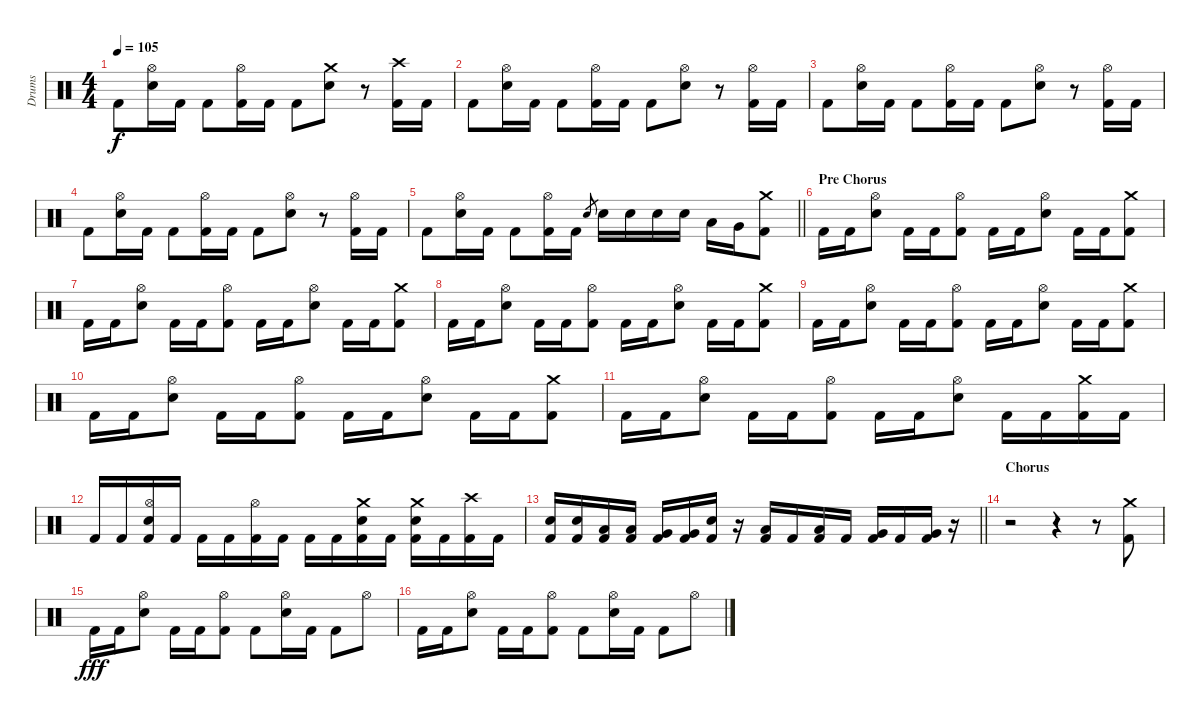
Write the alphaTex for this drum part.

\track ("Drums" "Drums") {instrument percussion}
\staff {score}
\articulation defaults
\ts (4 4)
\tempo 105
\clef neutral
\ks c "Kick (hit) 2".8{dy f}
("Hi-Hat (open)" "Snare (hit) 2").16 "Kick (hit) 2".16 "Kick (hit) 2".8 ("Hi-Hat (open)" "Kick (hit) 2").16 "Kick (hit) 2".16 "Kick (hit) 2".8 ("Crash medium (hit)" "Snare (hit) 2").8 r.8 ("Crash high (hit)" "Kick (hit) 2").16 "Kick (hit) 2".16 |
"Kick (hit) 2".8 ("Hi-Hat (open)" "Snare (hit) 2").16 "Kick (hit) 2".16 "Kick (hit) 2".8 ("Hi-Hat (open)" "Kick (hit) 2").16 "Kick (hit) 2".16 "Kick (hit) 2".8 ("Hi-Hat (open)" "Snare (hit) 2").8 r.8 ("Hi-Hat (open)" "Kick (hit) 2").16 "Kick (hit) 2".16 |
"Kick (hit) 2".8 ("Hi-Hat (open)" "Snare (hit) 2").16 "Kick (hit) 2".16 "Kick (hit) 2".8 ("Hi-Hat (open)" "Kick (hit) 2").16 "Kick (hit) 2".16 "Kick (hit) 2".8 ("Hi-Hat (open)" "Snare (hit) 2").8 r.8 ("Hi-Hat (open)" "Kick (hit) 2").16 "Kick (hit) 2".16 |
"Kick (hit) 2".8 ("Hi-Hat (open)" "Snare (hit) 2").16 "Kick (hit) 2".16 "Kick (hit) 2".8 ("Hi-Hat (open)" "Kick (hit) 2").16 "Kick (hit) 2".16 "Kick (hit) 2".8 ("Hi-Hat (open)" "Snare (hit) 2").8 r.8 ("Hi-Hat (open)" "Kick (hit) 2").16 "Kick (hit) 2".16 |
\barLineRight lightlight "Kick (hit) 2".8
("Hi-Hat (open)" "Snare (hit) 2").16 "Kick (hit) 2".16 "Kick (hit) 2".8 ("Hi-Hat (open)" "Kick (hit) 2").16 "Kick (hit) 2".16 "Snare (hit) 2".8{gr} "Snare (hit) 2".16 "Snare (hit) 2".16 "Snare (hit) 2".16 "Snare (hit) 2".16 "Low Tom (hit)".16 "Very Low Tom (hit)".16 ("Crash medium (hit)" "Kick (hit) 2").8 |
\section ("" "Pre Chorus")
"Kick (hit) 2".16 "Kick (hit) 2".16 ("Hi-Hat (open)" "Snare (hit) 2").8 "Kick (hit) 2".16 "Kick (hit) 2".16 ("Hi-Hat (open)" "Kick (hit) 2").8 "Kick (hit) 2".16 "Kick (hit) 2".16 ("Hi-Hat (open)" "Snare (hit) 2").8 "Kick (hit) 2".16 "Kick (hit) 2".16 ("Crash medium (hit)" "Kick (hit) 2").8 |
"Kick (hit) 2".16 "Kick (hit) 2".16 ("Hi-Hat (open)" "Snare (hit) 2").8 "Kick (hit) 2".16 "Kick (hit) 2".16 ("Hi-Hat (open)" "Kick (hit) 2").8 "Kick (hit) 2".16 "Kick (hit) 2".16 ("Hi-Hat (open)" "Snare (hit) 2").8 "Kick (hit) 2".16 "Kick (hit) 2".16 ("Crash medium (hit)" "Kick (hit) 2").8 |
"Kick (hit) 2".16 "Kick (hit) 2".16 ("Hi-Hat (open)" "Snare (hit) 2").8 "Kick (hit) 2".16 "Kick (hit) 2".16 ("Hi-Hat (open)" "Kick (hit) 2").8 "Kick (hit) 2".16 "Kick (hit) 2".16 ("Hi-Hat (open)" "Snare (hit) 2").8 "Kick (hit) 2".16 "Kick (hit) 2".16 ("Crash medium (hit)" "Kick (hit) 2").8 |
"Kick (hit) 2".16 "Kick (hit) 2".16 ("Hi-Hat (open)" "Snare (hit) 2").8 "Kick (hit) 2".16 "Kick (hit) 2".16 ("Hi-Hat (open)" "Kick (hit) 2").8 "Kick (hit) 2".16 "Kick (hit) 2".16 ("Hi-Hat (open)" "Snare (hit) 2").8 "Kick (hit) 2".16 "Kick (hit) 2".16 ("Crash medium (hit)" "Kick (hit) 2").8 |
"Kick (hit) 2".16 "Kick (hit) 2".16 ("Hi-Hat (open)" "Snare (hit) 2").8 "Kick (hit) 2".16 "Kick (hit) 2".16 ("Hi-Hat (open)" "Kick (hit) 2").8 "Kick (hit) 2".16 "Kick (hit) 2".16 ("Hi-Hat (open)" "Snare (hit) 2").8 "Kick (hit) 2".16 "Kick (hit) 2".16 ("Crash medium (hit)" "Kick (hit) 2").8 |
"Kick (hit) 2".16 "Kick (hit) 2".16 ("Hi-Hat (open)" "Snare (hit) 2").8 "Kick (hit) 2".16 "Kick (hit) 2".16 ("Hi-Hat (open)" "Kick (hit) 2").8 "Kick (hit) 2".16 "Kick (hit) 2".16 ("Hi-Hat (open)" "Snare (hit) 2").8 "Kick (hit) 2".16 "Kick (hit) 2".16 ("Crash medium (hit)" "Kick (hit) 2").16 "Kick (hit) 2".16 |
"Kick (hit) 2".16 "Kick (hit) 2".16 ("Hi-Hat (open)" "Snare (hit) 2" "Kick (hit) 2").16 "Kick (hit) 2".16 "Kick (hit) 2".16 "Kick (hit) 2".16 ("Hi-Hat (open)" "Kick (hit) 2").16 "Kick (hit) 2".16 "Kick (hit) 2".16 "Kick (hit) 2".16 ("Crash medium (hit)" "Snare (hit) 2" "Kick (hit) 2").16 "Kick (hit) 2".16 ("Crash medium (hit)" "Snare (hit) 2" "Kick (hit) 2").16 "Kick (hit) 2".16 ("Crash high (hit)" "Kick (hit) 2").16 "Kick (hit) 2".16 |
\barLineRight lightlight
("Snare (hit) 2" "Kick (hit) 2").16 ("Snare (hit) 2" "Kick (hit) 2").16 ("Low Tom (hit)" "Kick (hit) 2").16 ("Low Tom (hit)" "Kick (hit) 2").16 ("Very Low Tom (hit)" "Kick (hit) 2").16 ("Very Low Tom (hit)" "Kick (hit) 2").16 ("Snare (hit) 2" "Kick (hit) 2").16 r.16 ("Low Floor Tom (hit)" "Kick (hit) 2").16 "Kick (hit) 2".16 ("Low Tom (hit)" "Kick (hit) 2").16 "Kick (hit) 2".16 ("Very Low Tom (hit)" "Kick (hit) 2").16 "Kick (hit) 2".16 ("Very Low Tom (hit)" "Kick (hit) 2").16 r.16 |
\section ("" "Chorus")
r.2 r.4 r.8 ("Crash medium (hit)" "Kick (hit) 2").8 |
"Kick (hit) 2".16{dy fff} "Kick (hit) 2".16 ("Hi-Hat (open)" "Snare (hit) 2").8 "Kick (hit) 2".16 "Kick (hit) 2".16 ("Hi-Hat (open)" "Kick (hit) 2").8 "Kick (hit) 2".8 ("Hi-Hat (open)" "Snare (hit) 2").16 "Kick (hit) 2".16 "Kick (hit) 2".8 "Hi-Hat (open)".8 |
"Kick (hit) 2".16 "Kick (hit) 2".16 ("Hi-Hat (open)" "Snare (hit) 2").8 "Kick (hit) 2".16 "Kick (hit) 2".16 ("Hi-Hat (open)" "Kick (hit) 2").8 "Kick (hit) 2".8 ("Hi-Hat (open)" "Snare (hit) 2").16 "Kick (hit) 2".16 "Kick (hit) 2".8 "Hi-Hat (open)".8
